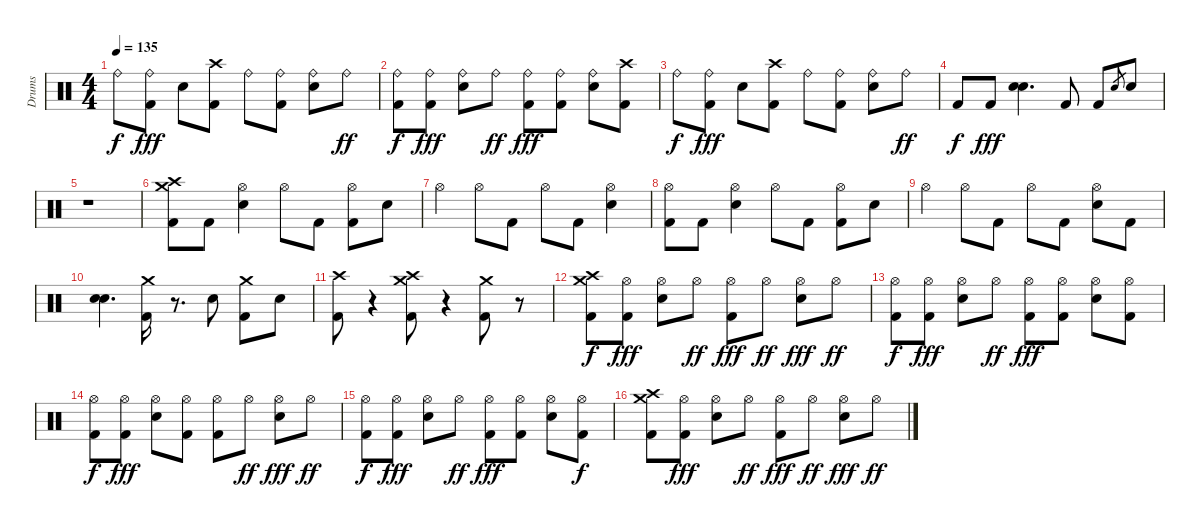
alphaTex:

\track ("Drums" "Drums") {instrument percussion}
\staff {score}
\articulation defaults
\ts (4 4)
\tempo 135
\clef neutral
\ks c "Ride (bell)".8{dy f}
("Ride (bell)" "Kick (hit) 2").8{dy fff} "Snare (hit) 2".8 ("Crash high (hit)" "Kick (hit) 2").8 "Ride (bell)".8 ("Ride (bell)" "Kick (hit) 2").8 ("Ride (bell)" "Snare (hit) 2").8 "Ride (bell)".8{dy ff} |
("Ride (bell)" "Kick (hit) 2").8{dy f} ("Ride (bell)" "Kick (hit) 2").8{dy fff} ("Ride (bell)" "Snare (hit) 2").8 "Ride (bell)".8{dy ff} ("Ride (bell)" "Kick (hit) 2").8{dy fff} ("Ride (bell)" "Kick (hit) 2").8 ("Ride (bell)" "Snare (hit) 2").8 ("Crash high (hit)" "Kick (hit) 2").8 |
"Ride (bell)".8{dy f} ("Ride (bell)" "Kick (hit) 2").8{dy fff} "Snare (hit) 2".8 ("Crash high (hit)" "Kick (hit) 2").8 "Ride (bell)".8 ("Ride (bell)" "Kick (hit) 2").8 ("Ride (bell)" "Snare (hit) 2").8 "Ride (bell)".8{dy ff} |
"Kick (hit) 2".8{dy f} "Kick (hit) 2".8{dy fff} ("Snare (hit) 2" "Snare (hit) 2").4{d} "Kick (hit) 2".8 "Kick (hit) 2".8 "Snare (hit) 2".8{gr} "Snare (hit) 2".8 |
r.1 |
("Crash medium (hit)" "Crash high (hit)" "Kick (hit) 2").8 "Kick (hit) 2".8 ("Hi-Hat (open)" "Snare (hit) 2").4 "Hi-Hat (open)".8 "Kick (hit) 2".8 ("Hi-Hat (open)" "Kick (hit) 2").8 "Snare (hit) 2".8 |
"Hi-Hat (open)".4 "Hi-Hat (open)".8 "Kick (hit) 2".8 "Hi-Hat (open)".8 "Kick (hit) 2".8 ("Hi-Hat (open)" "Snare (hit) 2").4 |
("Hi-Hat (open)" "Kick (hit) 2").8 "Kick (hit) 2".8 ("Hi-Hat (open)" "Snare (hit) 2").4 "Hi-Hat (open)".8 "Kick (hit) 2".8 ("Hi-Hat (open)" "Kick (hit) 2").8 "Snare (hit) 2".8 |
"Hi-Hat (open)".4 "Hi-Hat (open)".8 "Kick (hit) 2".8 "Hi-Hat (open)".8 "Kick (hit) 2".8 ("Hi-Hat (open)" "Snare (hit) 2").8 "Kick (hit) 2".8 |
("Snare (hit) 2" "Snare (hit) 2").4{d} ("Crash medium (hit)" "Kick (hit) 2").16 r.8{d} "Snare (hit) 2".8 ("Crash medium (hit)" "Kick (hit) 2").8 "Snare (hit) 2".8 |
("Crash high (hit)" "Kick (hit) 2").8 r.4 ("Crash medium (hit)" "Crash high (hit)" "Kick (hit) 2").8 r.4 ("Crash medium (hit)" "Kick (hit) 2").8 r.8 |
("Crash high (hit)" "Crash medium (hit)" "Kick (hit) 2").8{dy f} ("Hi-Hat (open)" "Kick (hit) 2").8{dy fff} ("Hi-Hat (open)" "Snare (hit) 2").8 "Hi-Hat (open)".8{dy ff} ("Hi-Hat (open)" "Kick (hit) 2").8{dy fff} "Hi-Hat (open)".8{dy ff} ("Hi-Hat (open)" "Snare (hit) 2").8{dy fff} "Hi-Hat (open)".8{dy ff} |
("Hi-Hat (open)" "Kick (hit) 2").8{dy f} ("Hi-Hat (open)" "Kick (hit) 2").8{dy fff} ("Hi-Hat (open)" "Snare (hit) 2").8 "Hi-Hat (open)".8{dy ff} ("Hi-Hat (open)" "Kick (hit) 2").8{dy fff} ("Hi-Hat (open)" "Kick (hit) 2").8 ("Hi-Hat (open)" "Snare (hit) 2").8 ("Hi-Hat (open)" "Kick (hit) 2").8 |
("Hi-Hat (open)" "Kick (hit) 2").8{dy f} ("Hi-Hat (open)" "Kick (hit) 2").8{dy fff} ("Hi-Hat (open)" "Snare (hit) 2").8 ("Hi-Hat (open)" "Kick (hit) 2").8 ("Hi-Hat (open)" "Kick (hit) 2").8 "Hi-Hat (open)".8{dy ff} ("Hi-Hat (open)" "Snare (hit) 2").8{dy fff} "Hi-Hat (open)".8{dy ff} |
("Hi-Hat (open)" "Kick (hit) 2").8{dy f} ("Hi-Hat (open)" "Kick (hit) 2").8{dy fff} ("Hi-Hat (open)" "Snare (hit) 2").8 "Hi-Hat (open)".8{dy ff} ("Hi-Hat (open)" "Kick (hit) 2").8{dy fff} ("Hi-Hat (open)" "Kick (hit) 2").8 ("Hi-Hat (open)" "Snare (hit) 2").8 ("Hi-Hat (open)" "Kick (hit) 2").8{dy f} |
("Crash high (hit)" "Crash medium (hit)" "Kick (hit) 2").8 ("Hi-Hat (open)" "Kick (hit) 2").8{dy fff} ("Hi-Hat (open)" "Snare (hit) 2").8 "Hi-Hat (open)".8{dy ff} ("Hi-Hat (open)" "Kick (hit) 2").8{dy fff} "Hi-Hat (open)".8{dy ff} ("Hi-Hat (open)" "Snare (hit) 2").8{dy fff} "Hi-Hat (open)".8{dy ff}
